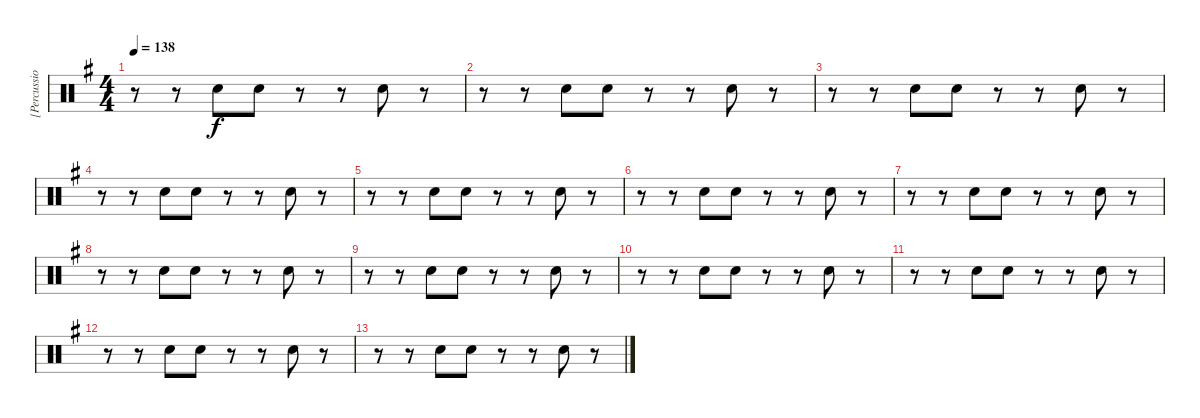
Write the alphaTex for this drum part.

\track ("[Percussion]" "[Percussio") {instrument percussion}
\staff {score}
\articulation defaults
\ts (4 4)
\tempo 138
\clef neutral
\ks eminor
r.8{dy f} r.8 "Hand Clap (hit)".8 "Hand Clap (hit)".8 r.8 r.8 "Hand Clap (hit)".8 r.8 |
r.8 r.8 "Hand Clap (hit)".8 "Hand Clap (hit)".8 r.8 r.8 "Hand Clap (hit)".8 r.8 |
r.8 r.8 "Hand Clap (hit)".8 "Hand Clap (hit)".8 r.8 r.8 "Hand Clap (hit)".8 r.8 |
r.8 r.8 "Hand Clap (hit)".8 "Hand Clap (hit)".8 r.8 r.8 "Hand Clap (hit)".8 r.8 |
r.8 r.8 "Hand Clap (hit)".8 "Hand Clap (hit)".8 r.8 r.8 "Hand Clap (hit)".8 r.8 |
r.8 r.8 "Hand Clap (hit)".8 "Hand Clap (hit)".8 r.8 r.8 "Hand Clap (hit)".8 r.8 |
r.8 r.8 "Hand Clap (hit)".8 "Hand Clap (hit)".8 r.8 r.8 "Hand Clap (hit)".8 r.8 |
r.8 r.8 "Hand Clap (hit)".8 "Hand Clap (hit)".8 r.8 r.8 "Hand Clap (hit)".8 r.8 |
r.8 r.8 "Hand Clap (hit)".8 "Hand Clap (hit)".8 r.8 r.8 "Hand Clap (hit)".8 r.8 |
r.8 r.8 "Hand Clap (hit)".8 "Hand Clap (hit)".8 r.8 r.8 "Hand Clap (hit)".8 r.8 |
r.8 r.8 "Hand Clap (hit)".8 "Hand Clap (hit)".8 r.8 r.8 "Hand Clap (hit)".8 r.8 |
r.8 r.8 "Hand Clap (hit)".8 "Hand Clap (hit)".8 r.8 r.8 "Hand Clap (hit)".8 r.8 |
r.8 r.8 "Hand Clap (hit)".8 "Hand Clap (hit)".8 r.8 r.8 "Hand Clap (hit)".8 r.8
